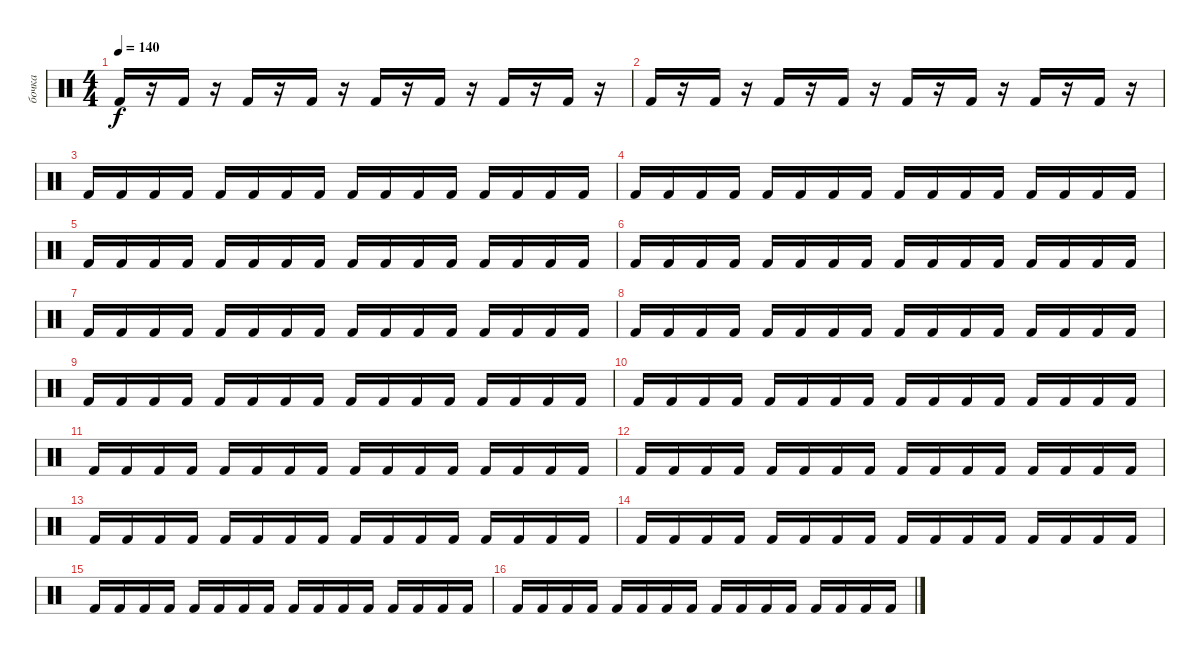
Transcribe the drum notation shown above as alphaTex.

\track ("бочка" "бочка") {mute instrument percussion}
\staff {score}
\articulation defaults
\ts (4 4)
\tempo 140
\clef neutral
\ks c "Kick (hit) 2".16{dy f}
r.16 "Kick (hit) 2".16 r.16 "Kick (hit) 2".16 r.16 "Kick (hit) 2".16 r.16 "Kick (hit) 2".16 r.16 "Kick (hit) 2".16 r.16 "Kick (hit) 2".16 r.16 "Kick (hit) 2".16 r.16 |
"Kick (hit) 2".16 r.16 "Kick (hit) 2".16 r.16 "Kick (hit) 2".16 r.16 "Kick (hit) 2".16 r.16 "Kick (hit) 2".16 r.16 "Kick (hit) 2".16 r.16 "Kick (hit) 2".16 r.16 "Kick (hit) 2".16 r.16 |
"Kick (hit) 2".16 "Kick (hit) 2".16 "Kick (hit) 2".16 "Kick (hit) 2".16 "Kick (hit) 2".16 "Kick (hit) 2".16 "Kick (hit) 2".16 "Kick (hit) 2".16 "Kick (hit) 2".16 "Kick (hit) 2".16 "Kick (hit) 2".16 "Kick (hit) 2".16 "Kick (hit) 2".16 "Kick (hit) 2".16 "Kick (hit) 2".16 "Kick (hit) 2".16 |
"Kick (hit) 2".16 "Kick (hit) 2".16 "Kick (hit) 2".16 "Kick (hit) 2".16 "Kick (hit) 2".16 "Kick (hit) 2".16 "Kick (hit) 2".16 "Kick (hit) 2".16 "Kick (hit) 2".16 "Kick (hit) 2".16 "Kick (hit) 2".16 "Kick (hit) 2".16 "Kick (hit) 2".16 "Kick (hit) 2".16 "Kick (hit) 2".16 "Kick (hit) 2".16 |
"Kick (hit) 2".16 "Kick (hit) 2".16 "Kick (hit) 2".16 "Kick (hit) 2".16 "Kick (hit) 2".16 "Kick (hit) 2".16 "Kick (hit) 2".16 "Kick (hit) 2".16 "Kick (hit) 2".16 "Kick (hit) 2".16 "Kick (hit) 2".16 "Kick (hit) 2".16 "Kick (hit) 2".16 "Kick (hit) 2".16 "Kick (hit) 2".16 "Kick (hit) 2".16 |
"Kick (hit) 2".16 "Kick (hit) 2".16 "Kick (hit) 2".16 "Kick (hit) 2".16 "Kick (hit) 2".16 "Kick (hit) 2".16 "Kick (hit) 2".16 "Kick (hit) 2".16 "Kick (hit) 2".16 "Kick (hit) 2".16 "Kick (hit) 2".16 "Kick (hit) 2".16 "Kick (hit) 2".16 "Kick (hit) 2".16 "Kick (hit) 2".16 "Kick (hit) 2".16 |
"Kick (hit) 2".16 "Kick (hit) 2".16 "Kick (hit) 2".16 "Kick (hit) 2".16 "Kick (hit) 2".16 "Kick (hit) 2".16 "Kick (hit) 2".16 "Kick (hit) 2".16 "Kick (hit) 2".16 "Kick (hit) 2".16 "Kick (hit) 2".16 "Kick (hit) 2".16 "Kick (hit) 2".16 "Kick (hit) 2".16 "Kick (hit) 2".16 "Kick (hit) 2".16 |
"Kick (hit) 2".16 "Kick (hit) 2".16 "Kick (hit) 2".16 "Kick (hit) 2".16 "Kick (hit) 2".16 "Kick (hit) 2".16 "Kick (hit) 2".16 "Kick (hit) 2".16 "Kick (hit) 2".16 "Kick (hit) 2".16 "Kick (hit) 2".16 "Kick (hit) 2".16 "Kick (hit) 2".16 "Kick (hit) 2".16 "Kick (hit) 2".16 "Kick (hit) 2".16 |
"Kick (hit) 2".16 "Kick (hit) 2".16 "Kick (hit) 2".16 "Kick (hit) 2".16 "Kick (hit) 2".16 "Kick (hit) 2".16 "Kick (hit) 2".16 "Kick (hit) 2".16 "Kick (hit) 2".16 "Kick (hit) 2".16 "Kick (hit) 2".16 "Kick (hit) 2".16 "Kick (hit) 2".16 "Kick (hit) 2".16 "Kick (hit) 2".16 "Kick (hit) 2".16 |
"Kick (hit) 2".16 "Kick (hit) 2".16 "Kick (hit) 2".16 "Kick (hit) 2".16 "Kick (hit) 2".16 "Kick (hit) 2".16 "Kick (hit) 2".16 "Kick (hit) 2".16 "Kick (hit) 2".16 "Kick (hit) 2".16 "Kick (hit) 2".16 "Kick (hit) 2".16 "Kick (hit) 2".16 "Kick (hit) 2".16 "Kick (hit) 2".16 "Kick (hit) 2".16 |
"Kick (hit) 2".16 "Kick (hit) 2".16 "Kick (hit) 2".16 "Kick (hit) 2".16 "Kick (hit) 2".16 "Kick (hit) 2".16 "Kick (hit) 2".16 "Kick (hit) 2".16 "Kick (hit) 2".16 "Kick (hit) 2".16 "Kick (hit) 2".16 "Kick (hit) 2".16 "Kick (hit) 2".16 "Kick (hit) 2".16 "Kick (hit) 2".16 "Kick (hit) 2".16 |
"Kick (hit) 2".16 "Kick (hit) 2".16 "Kick (hit) 2".16 "Kick (hit) 2".16 "Kick (hit) 2".16 "Kick (hit) 2".16 "Kick (hit) 2".16 "Kick (hit) 2".16 "Kick (hit) 2".16 "Kick (hit) 2".16 "Kick (hit) 2".16 "Kick (hit) 2".16 "Kick (hit) 2".16 "Kick (hit) 2".16 "Kick (hit) 2".16 "Kick (hit) 2".16 |
"Kick (hit) 2".16 "Kick (hit) 2".16 "Kick (hit) 2".16 "Kick (hit) 2".16 "Kick (hit) 2".16 "Kick (hit) 2".16 "Kick (hit) 2".16 "Kick (hit) 2".16 "Kick (hit) 2".16 "Kick (hit) 2".16 "Kick (hit) 2".16 "Kick (hit) 2".16 "Kick (hit) 2".16 "Kick (hit) 2".16 "Kick (hit) 2".16 "Kick (hit) 2".16 |
"Kick (hit) 2".16 "Kick (hit) 2".16 "Kick (hit) 2".16 "Kick (hit) 2".16 "Kick (hit) 2".16 "Kick (hit) 2".16 "Kick (hit) 2".16 "Kick (hit) 2".16 "Kick (hit) 2".16 "Kick (hit) 2".16 "Kick (hit) 2".16 "Kick (hit) 2".16 "Kick (hit) 2".16 "Kick (hit) 2".16 "Kick (hit) 2".16 "Kick (hit) 2".16 |
"Kick (hit) 2".16 "Kick (hit) 2".16 "Kick (hit) 2".16 "Kick (hit) 2".16 "Kick (hit) 2".16 "Kick (hit) 2".16 "Kick (hit) 2".16 "Kick (hit) 2".16 "Kick (hit) 2".16 "Kick (hit) 2".16 "Kick (hit) 2".16 "Kick (hit) 2".16 "Kick (hit) 2".16 "Kick (hit) 2".16 "Kick (hit) 2".16 "Kick (hit) 2".16 |
"Kick (hit) 2".16 "Kick (hit) 2".16 "Kick (hit) 2".16 "Kick (hit) 2".16 "Kick (hit) 2".16 "Kick (hit) 2".16 "Kick (hit) 2".16 "Kick (hit) 2".16 "Kick (hit) 2".16 "Kick (hit) 2".16 "Kick (hit) 2".16 "Kick (hit) 2".16 "Kick (hit) 2".16 "Kick (hit) 2".16 "Kick (hit) 2".16 "Kick (hit) 2".16
